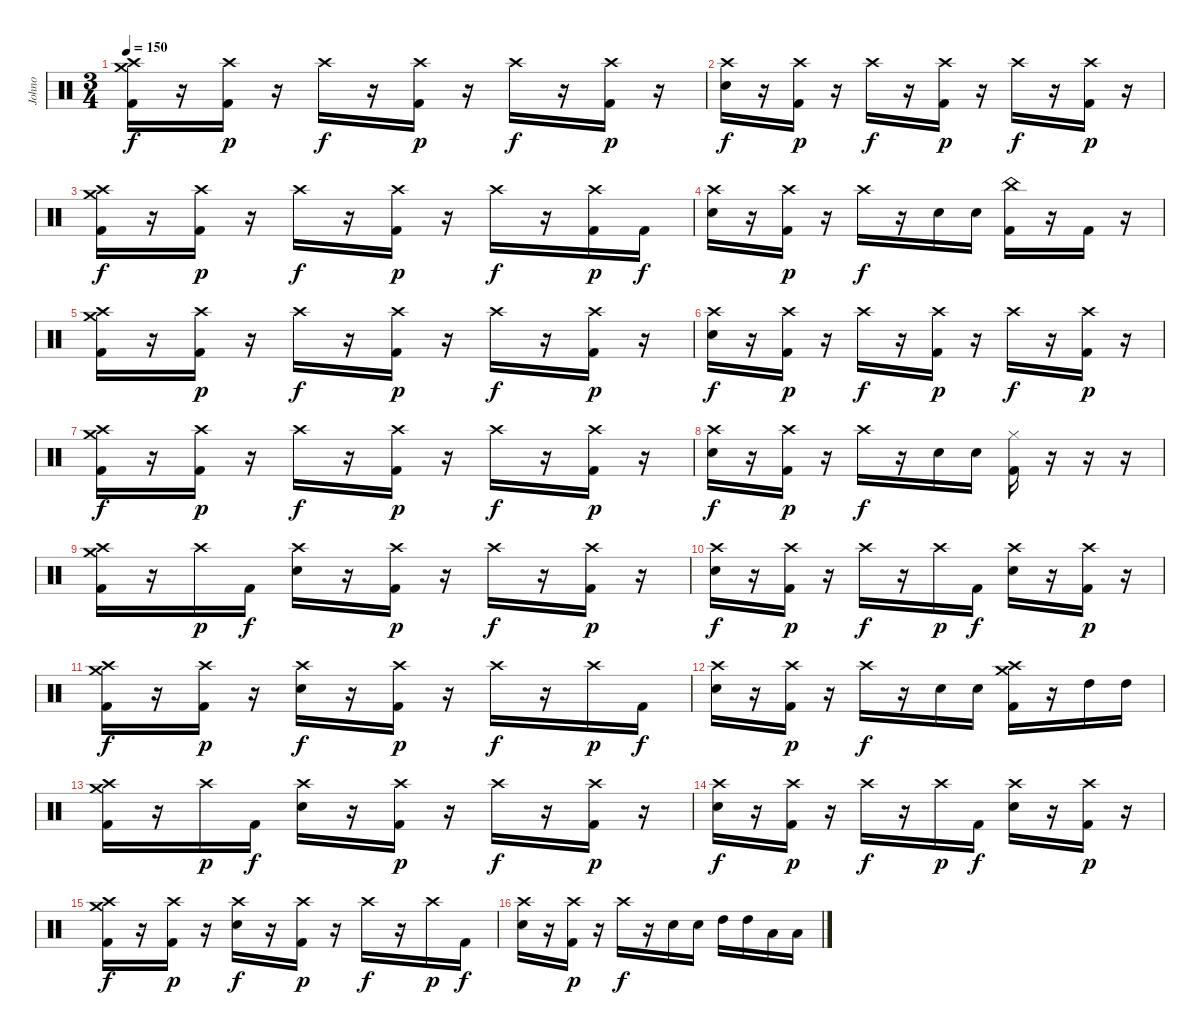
\track ("Johno" "Johno") {instrument percussion}
\staff {score}
\articulation defaults
\ts (3 4)
\tempo 150
\clef neutral
\ks c
("Crash medium (hit)" "Crash high (hit)" "Kick (hit) 2").16{dy f} r.16 ("Crash high (hit)" "Kick (hit) 2").16{dy p} r.16 "Crash high (hit)".16{dy f} r.16 ("Crash high (hit)" "Kick (hit) 2").16{dy p} r.16 "Crash high (hit)".16{dy f} r.16 ("Crash high (hit)" "Kick (hit) 2").16{dy p} r.16 |
("Crash high (hit)" "Electric Snare (hit)").16{dy f} r.16 ("Crash high (hit)" "Kick (hit) 2").16{dy p} r.16 "Crash high (hit)".16{dy f} r.16 ("Crash high (hit)" "Kick (hit) 2").16{dy p} r.16 "Crash high (hit)".16{dy f} r.16 ("Crash high (hit)" "Kick (hit) 2").16{dy p} r.16 |
("Crash medium (hit)" "Crash high (hit)" "Kick (hit) 2").16{dy f} r.16 ("Crash high (hit)" "Kick (hit) 2").16{dy p} r.16 "Crash high (hit)".16{dy f} r.16 ("Crash high (hit)" "Kick (hit) 2").16{dy p} r.16 "Crash high (hit)".16{dy f} r.16 ("Crash high (hit)" "Kick (hit) 2").16{dy p} "Kick (hit) 2".16{dy f} |
("Crash high (hit)" "Electric Snare (hit)").16 r.16 ("Crash high (hit)" "Kick (hit) 2").16{dy p} r.16 "Crash high (hit)".16{dy f} r.16 "Electric Snare (hit)".16 "Electric Snare (hit)".16 ("China (hit)" "Kick (hit) 2").16 r.16 "Kick (hit) 2".16 r.16 |
("Crash medium (hit)" "Crash high (hit)" "Kick (hit) 2").16 r.16 ("Crash high (hit)" "Kick (hit) 2").16{dy p} r.16 "Crash high (hit)".16{dy f} r.16 ("Crash high (hit)" "Kick (hit) 2").16{dy p} r.16 "Crash high (hit)".16{dy f} r.16 ("Crash high (hit)" "Kick (hit) 2").16{dy p} r.16 |
("Crash high (hit)" "Electric Snare (hit)").16{dy f} r.16 ("Crash high (hit)" "Kick (hit) 2").16{dy p} r.16 "Crash high (hit)".16{dy f} r.16 ("Crash high (hit)" "Kick (hit) 2").16{dy p} r.16 "Crash high (hit)".16{dy f} r.16 ("Crash high (hit)" "Kick (hit) 2").16{dy p} r.16 |
("Crash medium (hit)" "Crash high (hit)" "Kick (hit) 2").16{dy f} r.16 ("Crash high (hit)" "Kick (hit) 2").16{dy p} r.16 "Crash high (hit)".16{dy f} r.16 ("Crash high (hit)" "Kick (hit) 2").16{dy p} r.16 "Crash high (hit)".16{dy f} r.16 ("Crash high (hit)" "Kick (hit) 2").16{dy p} r.16 |
("Crash high (hit)" "Electric Snare (hit)").16{dy f} r.16 ("Crash high (hit)" "Kick (hit) 2").16{dy p} r.16 "Crash high (hit)".16{dy f} r.16 "Electric Snare (hit)".16 "Electric Snare (hit)".16 ("Hi-Hat (closed)" "Kick (hit) 2").16 r.16 r.16 r.16 |
("Crash medium (hit)" "Crash high (hit)" "Kick (hit) 2").16 r.16 "Crash high (hit)".16{dy p} "Kick (hit) 2".16{dy f} ("Crash high (hit)" "Electric Snare (hit)").16 r.16 ("Crash high (hit)" "Kick (hit) 2").16{dy p} r.16 "Crash high (hit)".16{dy f} r.16 ("Crash high (hit)" "Kick (hit) 2").16{dy p} r.16 |
("Crash high (hit)" "Electric Snare (hit)").16{dy f} r.16 ("Crash high (hit)" "Kick (hit) 2").16{dy p} r.16 "Crash high (hit)".16{dy f} r.16 "Crash high (hit)".16{dy p} "Kick (hit) 2".16{dy f} ("Crash high (hit)" "Electric Snare (hit)").16 r.16 ("Crash high (hit)" "Kick (hit) 2").16{dy p} r.16 |
("Crash medium (hit)" "Crash high (hit)" "Kick (hit) 2").16{dy f} r.16 ("Crash high (hit)" "Kick (hit) 2").16{dy p} r.16 ("Crash high (hit)" "Electric Snare (hit)").16{dy f} r.16 ("Crash high (hit)" "Kick (hit) 2").16{dy p} r.16 "Crash high (hit)".16{dy f} r.16 "Crash high (hit)".16{dy p} "Kick (hit) 2".16{dy f} |
("Crash high (hit)" "Electric Snare (hit)").16 r.16 ("Crash high (hit)" "Kick (hit) 2").16{dy p} r.16 "Crash high (hit)".16{dy f} r.16 "Electric Snare (hit)".16 "Electric Snare (hit)".16 ("Crash high (hit)" "Crash medium (hit)" "Kick (hit) 2").16 r.16 "High Tom (hit)".16 "High Tom (hit)".16 |
("Crash medium (hit)" "Crash high (hit)" "Kick (hit) 2").16 r.16 "Crash high (hit)".16{dy p} "Kick (hit) 2".16{dy f} ("Crash high (hit)" "Electric Snare (hit)").16 r.16 ("Crash high (hit)" "Kick (hit) 2").16{dy p} r.16 "Crash high (hit)".16{dy f} r.16 ("Crash high (hit)" "Kick (hit) 2").16{dy p} r.16 |
("Crash high (hit)" "Electric Snare (hit)").16{dy f} r.16 ("Crash high (hit)" "Kick (hit) 2").16{dy p} r.16 "Crash high (hit)".16{dy f} r.16 "Crash high (hit)".16{dy p} "Kick (hit) 2".16{dy f} ("Crash high (hit)" "Electric Snare (hit)").16 r.16 ("Crash high (hit)" "Kick (hit) 2").16{dy p} r.16 |
("Crash medium (hit)" "Crash high (hit)" "Kick (hit) 2").16{dy f} r.16 ("Crash high (hit)" "Kick (hit) 2").16{dy p} r.16 ("Crash high (hit)" "Electric Snare (hit)").16{dy f} r.16 ("Crash high (hit)" "Kick (hit) 2").16{dy p} r.16 "Crash high (hit)".16{dy f} r.16 "Crash high (hit)".16{dy p} "Kick (hit) 2".16{dy f} |
("Crash high (hit)" "Electric Snare (hit)").16 r.16 ("Crash high (hit)" "Kick (hit) 2").16{dy p} r.16 "Crash high (hit)".16{dy f} r.16 "Electric Snare (hit)".16 "Electric Snare (hit)".16 "High Tom (hit)".16 "High Tom (hit)".16 "Low Floor Tom (hit)".16 "Low Floor Tom (hit)".16
